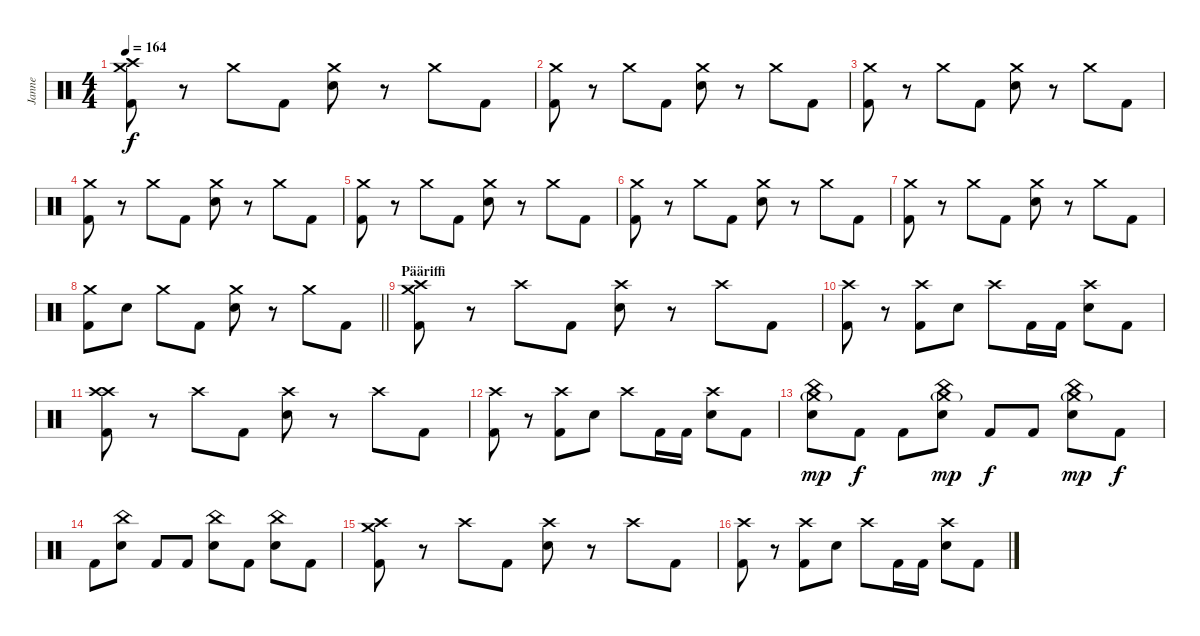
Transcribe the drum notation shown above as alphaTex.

\track ("Janne" "Janne") {instrument percussion}
\staff {score}
\articulation defaults
\ts (4 4)
\tempo 164
\clef neutral
\ks c
("Crash medium (hit)" "Crash high (hit)" "Kick (hit) 2").8{dy f} r.8 "Crash medium (hit)".8 "Kick (hit) 2".8 ("Crash medium (hit)" "Electric Snare (hit)").8 r.8 "Crash medium (hit)".8 "Kick (hit) 2".8 |
("Crash medium (hit)" "Kick (hit) 2").8 r.8 "Crash medium (hit)".8 "Kick (hit) 2".8 ("Crash medium (hit)" "Electric Snare (hit)").8 r.8 "Crash medium (hit)".8 "Kick (hit) 2".8 |
("Crash medium (hit)" "Kick (hit) 2").8 r.8 "Crash medium (hit)".8 "Kick (hit) 2".8 ("Crash medium (hit)" "Electric Snare (hit)").8 r.8 "Crash medium (hit)".8 "Kick (hit) 2".8 |
("Crash medium (hit)" "Kick (hit) 2").8 r.8 "Crash medium (hit)".8 "Kick (hit) 2".8 ("Crash medium (hit)" "Electric Snare (hit)").8 r.8 "Crash medium (hit)".8 "Kick (hit) 2".8 |
("Crash medium (hit)" "Kick (hit) 2").8 r.8 "Crash medium (hit)".8 "Kick (hit) 2".8 ("Crash medium (hit)" "Electric Snare (hit)").8 r.8 "Crash medium (hit)".8 "Kick (hit) 2".8 |
("Crash medium (hit)" "Kick (hit) 2").8 r.8 "Crash medium (hit)".8 "Kick (hit) 2".8 ("Crash medium (hit)" "Electric Snare (hit)").8 r.8 "Crash medium (hit)".8 "Kick (hit) 2".8 |
("Crash medium (hit)" "Kick (hit) 2").8 r.8 "Crash medium (hit)".8 "Kick (hit) 2".8 ("Crash medium (hit)" "Electric Snare (hit)").8 r.8 "Crash medium (hit)".8 "Kick (hit) 2".8 |
\barLineRight lightlight
("Crash medium (hit)" "Kick (hit) 2").8 "Electric Snare (hit)".8 "Crash medium (hit)".8 "Kick (hit) 2".8 ("Crash medium (hit)" "Electric Snare (hit)").8 r.8 "Crash medium (hit)".8 "Kick (hit) 2".8 |
\section ("" "Pääriffi")
("Crash medium (hit)" "Crash high (hit)" "Kick (hit) 2").8 r.8 "Crash high (hit)".8 "Kick (hit) 2".8 ("Crash high (hit)" "Electric Snare (hit)").8 r.8 "Crash high (hit)".8 "Kick (hit) 2".8 |
("Crash high (hit)" "Kick (hit) 2").8 r.8 ("Crash high (hit)" "Kick (hit) 2").8 "Electric Snare (hit)".8 "Crash high (hit)".8 "Kick (hit) 2".16 "Kick (hit) 2".16 ("Crash high (hit)" "Electric Snare (hit)").8 "Kick (hit) 2".8 |
("Crash high (hit)" "Crash high (hit)" "Kick (hit) 2").8 r.8 "Crash high (hit)".8 "Kick (hit) 2".8 ("Crash high (hit)" "Electric Snare (hit)").8 r.8 "Crash high (hit)".8 "Kick (hit) 2".8 |
("Crash high (hit)" "Kick (hit) 2").8 r.8 ("Crash high (hit)" "Kick (hit) 2").8 "Electric Snare (hit)".8 "Crash high (hit)".8 "Kick (hit) 2".16 "Kick (hit) 2".16 ("Crash high (hit)" "Electric Snare (hit)").8 "Kick (hit) 2".8 |
("China (hit)" "Electric Snare (hit)" "Crash medium (hit)"{g}).8{dy mp} "Kick (hit) 2".8{dy f} "Kick (hit) 2".8 ("China (hit)" "Electric Snare (hit)" "Crash medium (hit)"{g}).8{dy mp} "Kick (hit) 2".8{dy f} "Kick (hit) 2".8 ("China (hit)" "Electric Snare (hit)" "Crash medium (hit)"{g}).8{dy mp} "Kick (hit) 2".8{dy f} |
"Kick (hit) 2".8 ("China (hit)" "Electric Snare (hit)").8 "Kick (hit) 2".8 "Kick (hit) 2".8 ("China (hit)" "Electric Snare (hit)").8 "Kick (hit) 2".8 ("China (hit)" "Electric Snare (hit)").8 "Kick (hit) 2".8 |
("Crash medium (hit)" "Crash high (hit)" "Kick (hit) 2").8 r.8 "Crash high (hit)".8 "Kick (hit) 2".8 ("Crash high (hit)" "Electric Snare (hit)").8 r.8 "Crash high (hit)".8 "Kick (hit) 2".8 |
("Crash high (hit)" "Kick (hit) 2").8 r.8 ("Crash high (hit)" "Kick (hit) 2").8 "Electric Snare (hit)".8 "Crash high (hit)".8 "Kick (hit) 2".16 "Kick (hit) 2".16 ("Crash high (hit)" "Electric Snare (hit)").8 "Kick (hit) 2".8
